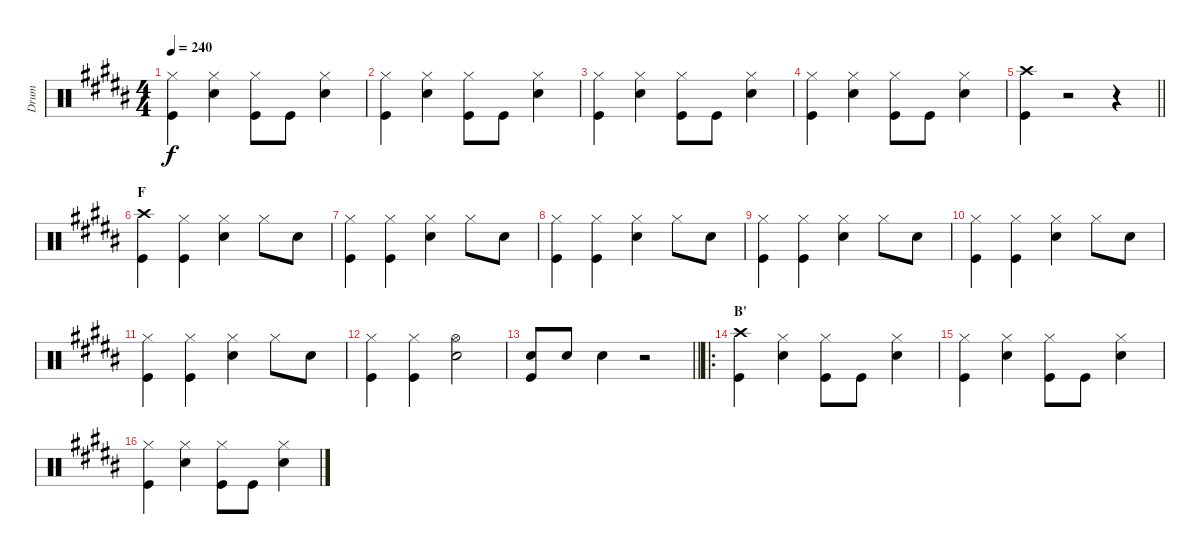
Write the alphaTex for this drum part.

\track ("Drum" "Drum") {instrument percussion}
\staff {score}
\articulation defaults
\ts (4 4)
\tempo 240
\clef neutral
\ks b
("Kick (hit)" "Hi-Hat (closed)").4{dy f} ("Hi-Hat (closed)" "Snare (hit) 2").4 ("Hi-Hat (closed)" "Kick (hit)").8 "Kick (hit)".8 ("Snare (hit) 2" "Hi-Hat (closed)").4 |
("Kick (hit)" "Hi-Hat (closed)").4 ("Hi-Hat (closed)" "Snare (hit) 2").4 ("Hi-Hat (closed)" "Kick (hit)").8 "Kick (hit)".8 ("Snare (hit) 2" "Hi-Hat (closed)").4 |
("Kick (hit)" "Hi-Hat (closed)").4 ("Hi-Hat (closed)" "Snare (hit) 2").4 ("Hi-Hat (closed)" "Kick (hit)").8 "Kick (hit)".8 ("Snare (hit) 2" "Hi-Hat (closed)").4 |
("Kick (hit)" "Hi-Hat (closed)").4 ("Hi-Hat (closed)" "Snare (hit) 2").4 ("Hi-Hat (closed)" "Kick (hit)").8 "Kick (hit)".8 ("Snare (hit) 2" "Hi-Hat (closed)").4 |
\barLineRight lightlight
("Kick (hit)" "Crash high (hit)").4 r.2 r.4 |
\section ("" "F")
("Kick (hit)" "Crash high (hit)").4 ("Kick (hit)" "Hi-Hat (closed)").4 ("Snare (hit) 2" "Hi-Hat (closed)").4 "Hi-Hat (closed)".8 "Snare (hit) 2".8 |
("Kick (hit)" "Hi-Hat (closed)").4 ("Kick (hit)" "Hi-Hat (closed)").4 ("Snare (hit) 2" "Hi-Hat (closed)").4 "Hi-Hat (closed)".8 "Snare (hit) 2".8 |
("Kick (hit)" "Hi-Hat (closed)").4 ("Kick (hit)" "Hi-Hat (closed)").4 ("Snare (hit) 2" "Hi-Hat (closed)").4 "Hi-Hat (closed)".8 "Snare (hit) 2".8 |
("Kick (hit)" "Hi-Hat (closed)").4 ("Kick (hit)" "Hi-Hat (closed)").4 ("Snare (hit) 2" "Hi-Hat (closed)").4 "Hi-Hat (closed)".8 "Snare (hit) 2".8 |
("Kick (hit)" "Hi-Hat (closed)").4 ("Kick (hit)" "Hi-Hat (closed)").4 ("Snare (hit) 2" "Hi-Hat (closed)").4 "Hi-Hat (closed)".8 "Snare (hit) 2".8 |
("Kick (hit)" "Hi-Hat (closed)").4 ("Kick (hit)" "Hi-Hat (closed)").4 ("Snare (hit) 2" "Hi-Hat (closed)").4 "Hi-Hat (closed)".8 "Snare (hit) 2".8 |
("Kick (hit)" "Hi-Hat (closed)").4 ("Kick (hit)" "Hi-Hat (closed)").4 ("Snare (hit) 2" "Hi-Hat (open)").2 |
\barLineRight lightlight
("Kick (hit)" "Snare (hit) 2").8 "Snare (hit) 2".8 "Snare (hit) 2".4 r.2 |
\ro
\section ("" "B'")
("Kick (hit)" "Crash high (hit)").4 ("Hi-Hat (closed)" "Snare (hit) 2").4 ("Hi-Hat (closed)" "Kick (hit)").8 "Kick (hit)".8 ("Snare (hit) 2" "Hi-Hat (closed)").4 |
("Kick (hit)" "Hi-Hat (closed)").4 ("Hi-Hat (closed)" "Snare (hit) 2").4 ("Hi-Hat (closed)" "Kick (hit)").8 "Kick (hit)".8 ("Snare (hit) 2" "Hi-Hat (closed)").4 |
("Kick (hit)" "Hi-Hat (closed)").4 ("Hi-Hat (closed)" "Snare (hit) 2").4 ("Hi-Hat (closed)" "Kick (hit)").8 "Kick (hit)".8 ("Snare (hit) 2" "Hi-Hat (closed)").4
